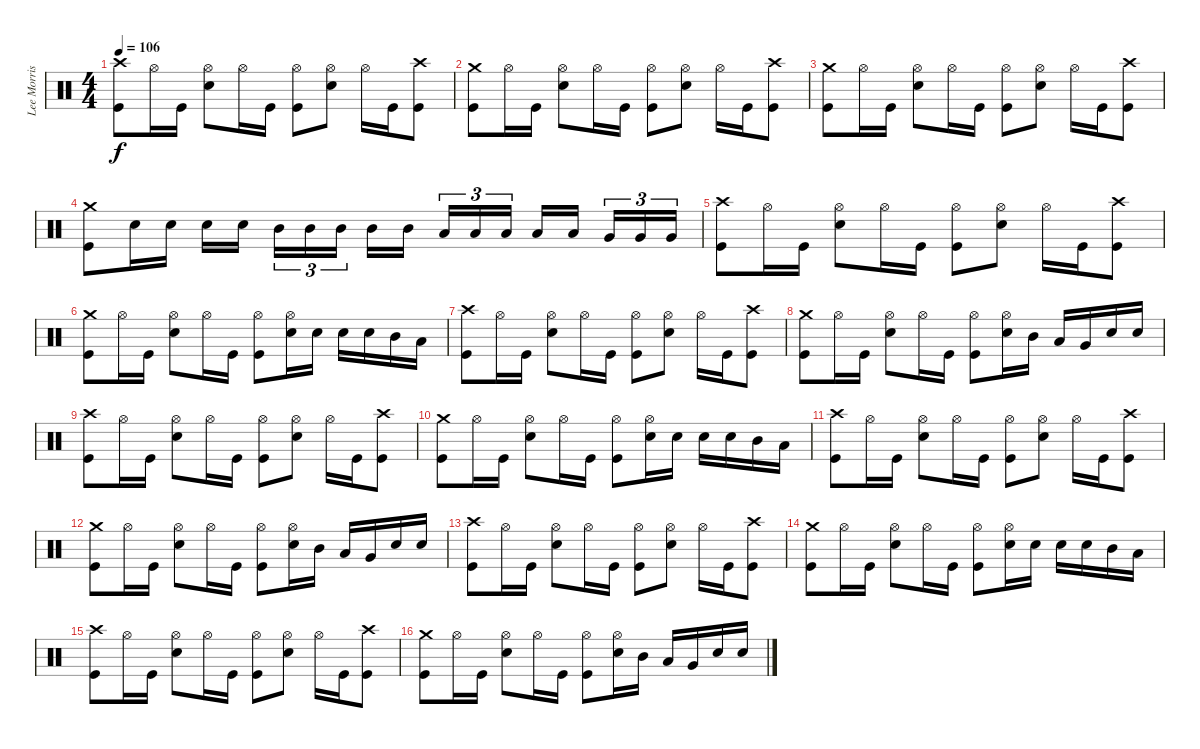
\track ("Lee Morris" "Lee Morris") {instrument percussion}
\staff {score}
\articulation defaults
\ts (4 4)
\tempo 106
\clef neutral
\ks c
("Kick (hit)" "Crash high (hit)").8{dy f} "Hi-Hat (open)".16 "Kick (hit)".16 ("Snare (hit) 2" "Hi-Hat (open)").8 "Hi-Hat (open)".16 "Kick (hit)".16 ("Kick (hit)" "Hi-Hat (open)").8 ("Snare (hit) 2" "Hi-Hat (open)").8 "Hi-Hat (open)".16 "Kick (hit)".16 ("Kick (hit)" "Crash high (hit)").8 |
("Kick (hit)" "Crash medium (hit)").8 "Hi-Hat (open)".16 "Kick (hit)".16 ("Snare (hit) 2" "Hi-Hat (open)").8 "Hi-Hat (open)".16 "Kick (hit)".16 ("Kick (hit)" "Hi-Hat (open)").8 ("Snare (hit) 2" "Hi-Hat (open)").8 "Hi-Hat (open)".16 "Kick (hit)".16 ("Kick (hit)" "Crash high (hit)").8 |
("Kick (hit)" "Crash medium (hit)").8 "Hi-Hat (open)".16 "Kick (hit)".16 ("Snare (hit) 2" "Hi-Hat (open)").8 "Hi-Hat (open)".16 "Kick (hit)".16 ("Kick (hit)" "Hi-Hat (open)").8 ("Snare (hit) 2" "Hi-Hat (open)").8 "Hi-Hat (open)".16 "Kick (hit)".16 ("Kick (hit)" "Crash high (hit)").8 |
("Kick (hit)" "Crash medium (hit)").8 "Snare (hit) 2".16 "Snare (hit) 2".16 "Snare (hit) 2".16 "Snare (hit) 2".16 "Mid Tom (hit)".16{tu (3 2)} "Mid Tom (hit)".16{tu (3 2)} "Mid Tom (hit)".16{tu (3 2)} "Mid Tom (hit)".16 "Mid Tom (hit)".16 "Low Tom (hit)".16{tu (3 2)} "Low Tom (hit)".16{tu (3 2)} "Low Tom (hit)".16{tu (3 2)} "Low Tom (hit)".16 "Low Tom (hit)".16 "Very Low Tom (hit)".16{tu (3 2)} "Very Low Tom (hit)".16{tu (3 2)} "Very Low Tom (hit)".16{tu (3 2)} |
("Kick (hit)" "Crash high (hit)").8 "Hi-Hat (open)".16 "Kick (hit)".16 ("Snare (hit) 2" "Hi-Hat (open)").8 "Hi-Hat (open)".16 "Kick (hit)".16 ("Kick (hit)" "Hi-Hat (open)").8 ("Snare (hit) 2" "Hi-Hat (open)").8 "Hi-Hat (open)".16 "Kick (hit)".16 ("Kick (hit)" "Crash high (hit)").8 |
("Kick (hit)" "Crash medium (hit)").8 "Hi-Hat (open)".16 "Kick (hit)".16 ("Snare (hit) 2" "Hi-Hat (open)").8 "Hi-Hat (open)".16 "Kick (hit)".16 ("Kick (hit)" "Hi-Hat (open)").8 ("Snare (hit) 2" "Hi-Hat (open)").16 "Snare (hit) 2".16 "Snare (hit) 2".16 "Snare (hit) 2".16 "Mid Tom (hit)".16 "Low Tom (hit)".16 |
("Kick (hit)" "Crash high (hit)").8 "Hi-Hat (open)".16 "Kick (hit)".16 ("Snare (hit) 2" "Hi-Hat (open)").8 "Hi-Hat (open)".16 "Kick (hit)".16 ("Kick (hit)" "Hi-Hat (open)").8 ("Snare (hit) 2" "Hi-Hat (open)").8 "Hi-Hat (open)".16 "Kick (hit)".16 ("Kick (hit)" "Crash high (hit)").8 |
("Kick (hit)" "Crash medium (hit)").8 "Hi-Hat (open)".16 "Kick (hit)".16 ("Snare (hit) 2" "Hi-Hat (open)").8 "Hi-Hat (open)".16 "Kick (hit)".16 ("Kick (hit)" "Hi-Hat (open)").8 ("Snare (hit) 2" "Hi-Hat (open)").16 "Mid Tom (hit)".16 "Low Tom (hit)".16 "Very Low Tom (hit)".16 "Snare (hit) 2".16 "Snare (hit) 2".16 |
("Kick (hit)" "Crash high (hit)").8 "Hi-Hat (open)".16 "Kick (hit)".16 ("Snare (hit) 2" "Hi-Hat (open)").8 "Hi-Hat (open)".16 "Kick (hit)".16 ("Kick (hit)" "Hi-Hat (open)").8 ("Snare (hit) 2" "Hi-Hat (open)").8 "Hi-Hat (open)".16 "Kick (hit)".16 ("Kick (hit)" "Crash high (hit)").8 |
("Kick (hit)" "Crash medium (hit)").8 "Hi-Hat (open)".16 "Kick (hit)".16 ("Snare (hit) 2" "Hi-Hat (open)").8 "Hi-Hat (open)".16 "Kick (hit)".16 ("Kick (hit)" "Hi-Hat (open)").8 ("Snare (hit) 2" "Hi-Hat (open)").16 "Snare (hit) 2".16 "Snare (hit) 2".16 "Snare (hit) 2".16 "Mid Tom (hit)".16 "Low Tom (hit)".16 |
("Kick (hit)" "Crash high (hit)").8 "Hi-Hat (open)".16 "Kick (hit)".16 ("Snare (hit) 2" "Hi-Hat (open)").8 "Hi-Hat (open)".16 "Kick (hit)".16 ("Kick (hit)" "Hi-Hat (open)").8 ("Snare (hit) 2" "Hi-Hat (open)").8 "Hi-Hat (open)".16 "Kick (hit)".16 ("Kick (hit)" "Crash high (hit)").8 |
("Kick (hit)" "Crash medium (hit)").8 "Hi-Hat (open)".16 "Kick (hit)".16 ("Snare (hit) 2" "Hi-Hat (open)").8 "Hi-Hat (open)".16 "Kick (hit)".16 ("Kick (hit)" "Hi-Hat (open)").8 ("Snare (hit) 2" "Hi-Hat (open)").16 "Mid Tom (hit)".16 "Low Tom (hit)".16 "Very Low Tom (hit)".16 "Snare (hit) 2".16 "Snare (hit) 2".16 |
("Kick (hit)" "Crash high (hit)").8 "Hi-Hat (open)".16 "Kick (hit)".16 ("Snare (hit) 2" "Hi-Hat (open)").8 "Hi-Hat (open)".16 "Kick (hit)".16 ("Kick (hit)" "Hi-Hat (open)").8 ("Snare (hit) 2" "Hi-Hat (open)").8 "Hi-Hat (open)".16 "Kick (hit)".16 ("Kick (hit)" "Crash high (hit)").8 |
("Kick (hit)" "Crash medium (hit)").8 "Hi-Hat (open)".16 "Kick (hit)".16 ("Snare (hit) 2" "Hi-Hat (open)").8 "Hi-Hat (open)".16 "Kick (hit)".16 ("Kick (hit)" "Hi-Hat (open)").8 ("Snare (hit) 2" "Hi-Hat (open)").16 "Snare (hit) 2".16 "Snare (hit) 2".16 "Snare (hit) 2".16 "Mid Tom (hit)".16 "Low Tom (hit)".16 |
("Kick (hit)" "Crash high (hit)").8 "Hi-Hat (open)".16 "Kick (hit)".16 ("Snare (hit) 2" "Hi-Hat (open)").8 "Hi-Hat (open)".16 "Kick (hit)".16 ("Kick (hit)" "Hi-Hat (open)").8 ("Snare (hit) 2" "Hi-Hat (open)").8 "Hi-Hat (open)".16 "Kick (hit)".16 ("Kick (hit)" "Crash high (hit)").8 |
("Kick (hit)" "Crash medium (hit)").8 "Hi-Hat (open)".16 "Kick (hit)".16 ("Snare (hit) 2" "Hi-Hat (open)").8 "Hi-Hat (open)".16 "Kick (hit)".16 ("Kick (hit)" "Hi-Hat (open)").8 ("Snare (hit) 2" "Hi-Hat (open)").16 "Mid Tom (hit)".16 "Low Tom (hit)".16 "Very Low Tom (hit)".16 "Snare (hit) 2".16 "Snare (hit) 2".16
